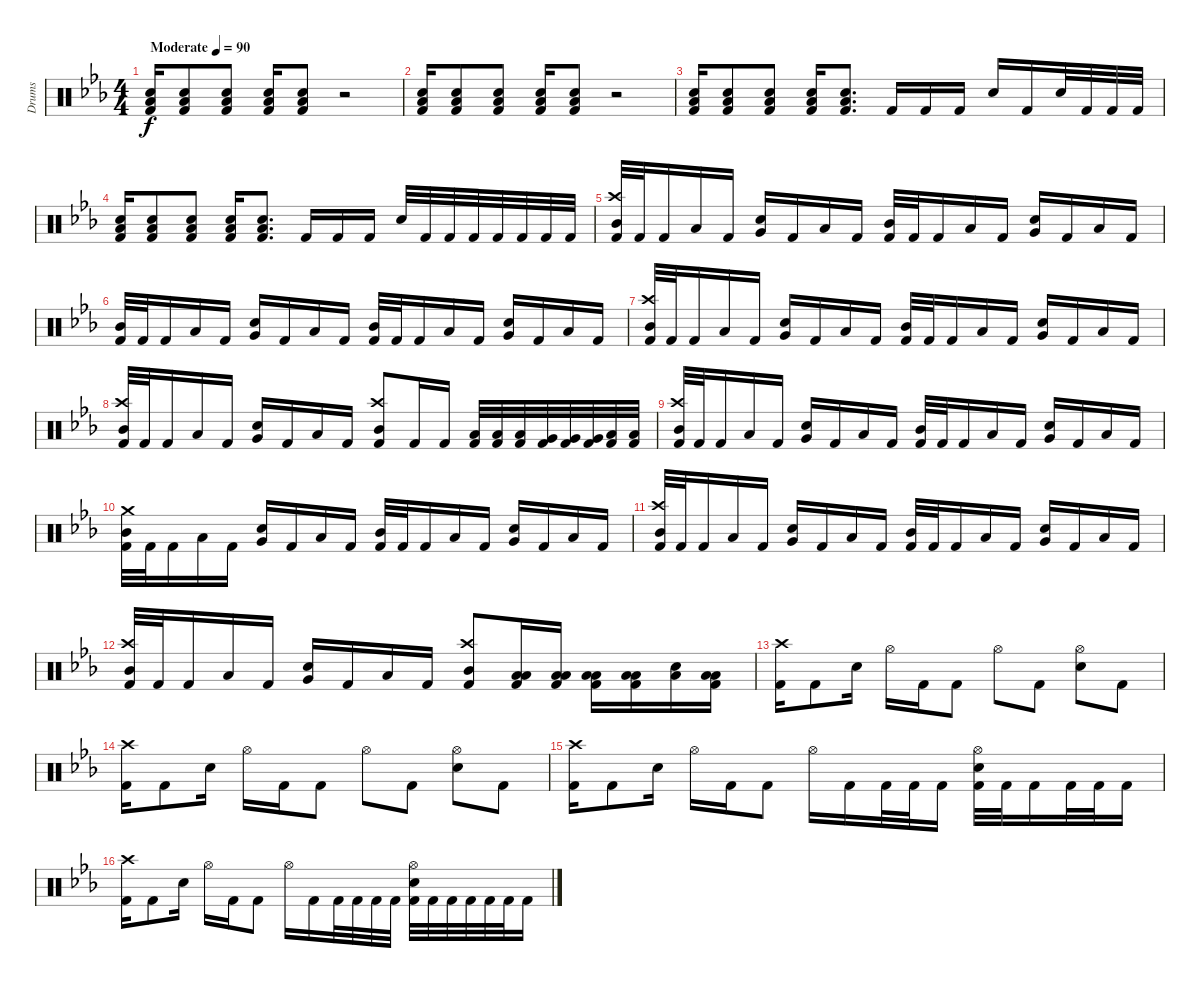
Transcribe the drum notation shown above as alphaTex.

\track ("Drums" "Drums") {instrument percussion}
\staff {score}
\articulation defaults
\ts (4 4)
\tempo (90 "Moderate")
\clef neutral
\ks cminor
("Low Floor Tom (hit)" "Electric Snare (hit)" "Kick (hit) 2").16{dy f} ("Low Floor Tom (hit)" "Electric Snare (hit)" "Kick (hit) 2").8 ("Low Floor Tom (hit)" "Electric Snare (hit)" "Kick (hit) 2").8 ("Low Floor Tom (hit)" "Electric Snare (hit)" "Kick (hit) 2").16 ("Low Floor Tom (hit)" "Electric Snare (hit)" "Kick (hit) 2").8 r.2 |
("Low Floor Tom (hit)" "Electric Snare (hit)" "Kick (hit) 2").16 ("Low Floor Tom (hit)" "Electric Snare (hit)" "Kick (hit) 2").8 ("Low Floor Tom (hit)" "Electric Snare (hit)" "Kick (hit) 2").8 ("Low Floor Tom (hit)" "Electric Snare (hit)" "Kick (hit) 2").16 ("Low Floor Tom (hit)" "Electric Snare (hit)" "Kick (hit) 2").8 r.2 |
("Low Floor Tom (hit)" "Electric Snare (hit)" "Kick (hit) 2").16 ("Low Floor Tom (hit)" "Electric Snare (hit)" "Kick (hit) 2").8 ("Low Floor Tom (hit)" "Electric Snare (hit)" "Kick (hit) 2").8 ("Low Floor Tom (hit)" "Electric Snare (hit)" "Kick (hit) 2").16 ("Low Floor Tom (hit)" "Electric Snare (hit)" "Kick (hit) 2").8{d} "Kick (hit) 2".16 "Kick (hit) 2".16 "Kick (hit) 2".16 "Electric Snare (hit)".16 "Kick (hit) 2".16 "Electric Snare (hit)".32 "Kick (hit) 2".32 "Kick (hit) 2".32 "Kick (hit) 2".32 |
("Low Floor Tom (hit)" "Electric Snare (hit)" "Kick (hit) 2").16 ("Low Floor Tom (hit)" "Electric Snare (hit)" "Kick (hit) 2").8 ("Low Floor Tom (hit)" "Electric Snare (hit)" "Kick (hit) 2").8 ("Low Floor Tom (hit)" "Electric Snare (hit)" "Kick (hit) 2").16 ("Low Floor Tom (hit)" "Electric Snare (hit)" "Kick (hit) 2").8{d} "Kick (hit) 2".16 "Kick (hit) 2".16 "Kick (hit) 2".16 "Electric Snare (hit)".32 "Kick (hit) 2".32 "Kick (hit) 2".32 "Kick (hit) 2".32 "Kick (hit) 2".32 "Kick (hit) 2".32 "Kick (hit) 2".32 "Kick (hit) 2".32 |
("Crash high (hit)" "Mid Tom (hit)" "Kick (hit) 2").32 "Kick (hit) 2".32 "Kick (hit) 2".16 "Low Tom (hit)".16 "Kick (hit) 2".16 ("Very Low Tom (hit)" "Electric Snare (hit)").16 "Kick (hit) 2".16 "Low Floor Tom (hit)".16 "Kick (hit) 2".16 ("Mid Tom (hit)" "Kick (hit) 2").32 "Kick (hit) 2".32 "Kick (hit) 2".16 "Low Tom (hit)".16 "Kick (hit) 2".16 ("Very Low Tom (hit)" "Electric Snare (hit)").16 "Kick (hit) 2".16 "Low Floor Tom (hit)".16 "Kick (hit) 2".16 |
("Mid Tom (hit)" "Kick (hit) 2").32 "Kick (hit) 2".32 "Kick (hit) 2".16 "Low Tom (hit)".16 "Kick (hit) 2".16 ("Very Low Tom (hit)" "Electric Snare (hit)").16 "Kick (hit) 2".16 "Low Floor Tom (hit)".16 "Kick (hit) 2".16 ("Mid Tom (hit)" "Kick (hit) 2").32 "Kick (hit) 2".32 "Kick (hit) 2".16 "Low Tom (hit)".16 "Kick (hit) 2".16 ("Very Low Tom (hit)" "Electric Snare (hit)").16 "Kick (hit) 2".16 "Low Floor Tom (hit)".16 "Kick (hit) 2".16 |
("Crash high (hit)" "Mid Tom (hit)" "Kick (hit) 2").32 "Kick (hit) 2".32 "Kick (hit) 2".16 "Low Tom (hit)".16 "Kick (hit) 2".16 ("Very Low Tom (hit)" "Electric Snare (hit)").16 "Kick (hit) 2".16 "Low Floor Tom (hit)".16 "Kick (hit) 2".16 ("Mid Tom (hit)" "Kick (hit) 2").32 "Kick (hit) 2".32 "Kick (hit) 2".16 "Low Tom (hit)".16 "Kick (hit) 2".16 ("Very Low Tom (hit)" "Electric Snare (hit)").16 "Kick (hit) 2".16 "Low Floor Tom (hit)".16 "Kick (hit) 2".16 |
("Crash high (hit)" "Mid Tom (hit)" "Kick (hit) 2").32 "Kick (hit) 2".32 "Kick (hit) 2".16 "Low Tom (hit)".16 "Kick (hit) 2".16 ("Very Low Tom (hit)" "Electric Snare (hit)").16 "Kick (hit) 2".16 "Low Floor Tom (hit)".16 "Kick (hit) 2".16 ("Crash high (hit)" "Mid Tom (hit)" "Kick (hit) 2").8 "Kick (hit) 2".16 "Kick (hit) 2".16 ("Low Tom (hit)" "Kick (hit) 2").32 ("Low Tom (hit)" "Kick (hit) 2").32 ("Low Tom (hit)" "Kick (hit) 2").32 ("Very Low Tom (hit)" "Kick (hit) 2").32 ("Very Low Tom (hit)" "Kick (hit) 2").32 ("Very Low Tom (hit)" "Kick (hit) 2").32 ("Low Floor Tom (hit)" "Kick (hit) 2").32 ("Low Floor Tom (hit)" "Kick (hit) 2").32 |
("Crash high (hit)" "Mid Tom (hit)" "Kick (hit) 2").32 "Kick (hit) 2".32 "Kick (hit) 2".16 "Low Tom (hit)".16 "Kick (hit) 2".16 ("Very Low Tom (hit)" "Electric Snare (hit)").16 "Kick (hit) 2".16 "Low Floor Tom (hit)".16 "Kick (hit) 2".16 ("Mid Tom (hit)" "Kick (hit) 2").32 "Kick (hit) 2".32 "Kick (hit) 2".16 "Low Tom (hit)".16 "Kick (hit) 2".16 ("Very Low Tom (hit)" "Electric Snare (hit)").16 "Kick (hit) 2".16 "Low Floor Tom (hit)".16 "Kick (hit) 2".16 |
("Crash medium (hit)" "Mid Tom (hit)" "Kick (hit) 2").32 "Kick (hit) 2".32 "Kick (hit) 2".16 "Low Tom (hit)".16 "Kick (hit) 2".16 ("Very Low Tom (hit)" "Electric Snare (hit)").16 "Kick (hit) 2".16 "Low Floor Tom (hit)".16 "Kick (hit) 2".16 ("Mid Tom (hit)" "Kick (hit) 2").32 "Kick (hit) 2".32 "Kick (hit) 2".16 "Low Tom (hit)".16 "Kick (hit) 2".16 ("Very Low Tom (hit)" "Electric Snare (hit)").16 "Kick (hit) 2".16 "Low Floor Tom (hit)".16 "Kick (hit) 2".16 |
("Crash high (hit)" "Mid Tom (hit)" "Kick (hit) 2").32 "Kick (hit) 2".32 "Kick (hit) 2".16 "Low Tom (hit)".16 "Kick (hit) 2".16 ("Very Low Tom (hit)" "Electric Snare (hit)").16 "Kick (hit) 2".16 "Low Floor Tom (hit)".16 "Kick (hit) 2".16 ("Mid Tom (hit)" "Kick (hit) 2").32 "Kick (hit) 2".32 "Kick (hit) 2".16 "Low Tom (hit)".16 "Kick (hit) 2".16 ("Very Low Tom (hit)" "Electric Snare (hit)").16 "Kick (hit) 2".16 "Low Floor Tom (hit)".16 "Kick (hit) 2".16 |
("Crash high (hit)" "Mid Tom (hit)" "Kick (hit) 2").32 "Kick (hit) 2".32 "Kick (hit) 2".16 "Low Tom (hit)".16 "Kick (hit) 2".16 ("Very Low Tom (hit)" "Electric Snare (hit)").16 "Kick (hit) 2".16 "Low Floor Tom (hit)".16 "Kick (hit) 2".16 ("Crash high (hit)" "Mid Tom (hit)" "Kick (hit) 2").8 ("Low Tom (hit)" "Low Floor Tom (hit)" "Kick (hit) 2").16 ("Low Tom (hit)" "Low Floor Tom (hit)" "Kick (hit) 2").16 ("Low Tom (hit)" "Low Floor Tom (hit)" "Kick (hit) 2").16 ("Low Tom (hit)" "Low Floor Tom (hit)" "Kick (hit) 2").16 ("Low Floor Tom (hit)" "Electric Snare (hit)").16 ("Low Tom (hit)" "Low Floor Tom (hit)" "Kick (hit) 2").16 |
("Crash high (hit)" "Kick (hit) 2").16 "Kick (hit) 2".8 "Electric Snare (hit)".16 "Hi-Hat (open)".16 "Kick (hit) 2".16 "Kick (hit) 2".8 "Hi-Hat (open)".8 "Kick (hit) 2".8 ("Hi-Hat (open)" "Electric Snare (hit)").8 "Kick (hit) 2".8 |
("Crash high (hit)" "Kick (hit) 2").16 "Kick (hit) 2".8 "Electric Snare (hit)".16 "Hi-Hat (open)".16 "Kick (hit) 2".16 "Kick (hit) 2".8 "Hi-Hat (open)".8 "Kick (hit) 2".8 ("Hi-Hat (open)" "Electric Snare (hit)").8 "Kick (hit) 2".8 |
("Crash high (hit)" "Kick (hit) 2").16 "Kick (hit) 2".8 "Electric Snare (hit)".16 "Hi-Hat (open)".16 "Kick (hit) 2".16 "Kick (hit) 2".8 "Hi-Hat (open)".16 "Kick (hit) 2".16 "Kick (hit) 2".32 "Kick (hit) 2".32 "Kick (hit) 2".16 ("Hi-Hat (open)" "Electric Snare (hit)" "Kick (hit) 2").32 "Kick (hit) 2".32 "Kick (hit) 2".16 "Kick (hit) 2".32 "Kick (hit) 2".32 "Kick (hit) 2".16 |
("Crash high (hit)" "Kick (hit) 2").16 "Kick (hit) 2".8 "Electric Snare (hit)".16 "Hi-Hat (open)".16 "Kick (hit) 2".16 "Kick (hit) 2".8 "Hi-Hat (open)".16 "Kick (hit) 2".16 "Kick (hit) 2".32 "Kick (hit) 2".32 "Kick (hit) 2".32 "Kick (hit) 2".32 ("Hi-Hat (open)" "Electric Snare (hit)" "Kick (hit) 2").32 "Kick (hit) 2".32 "Kick (hit) 2".32 "Kick (hit) 2".32 "Kick (hit) 2".32 "Kick (hit) 2".32 "Kick (hit) 2".16
